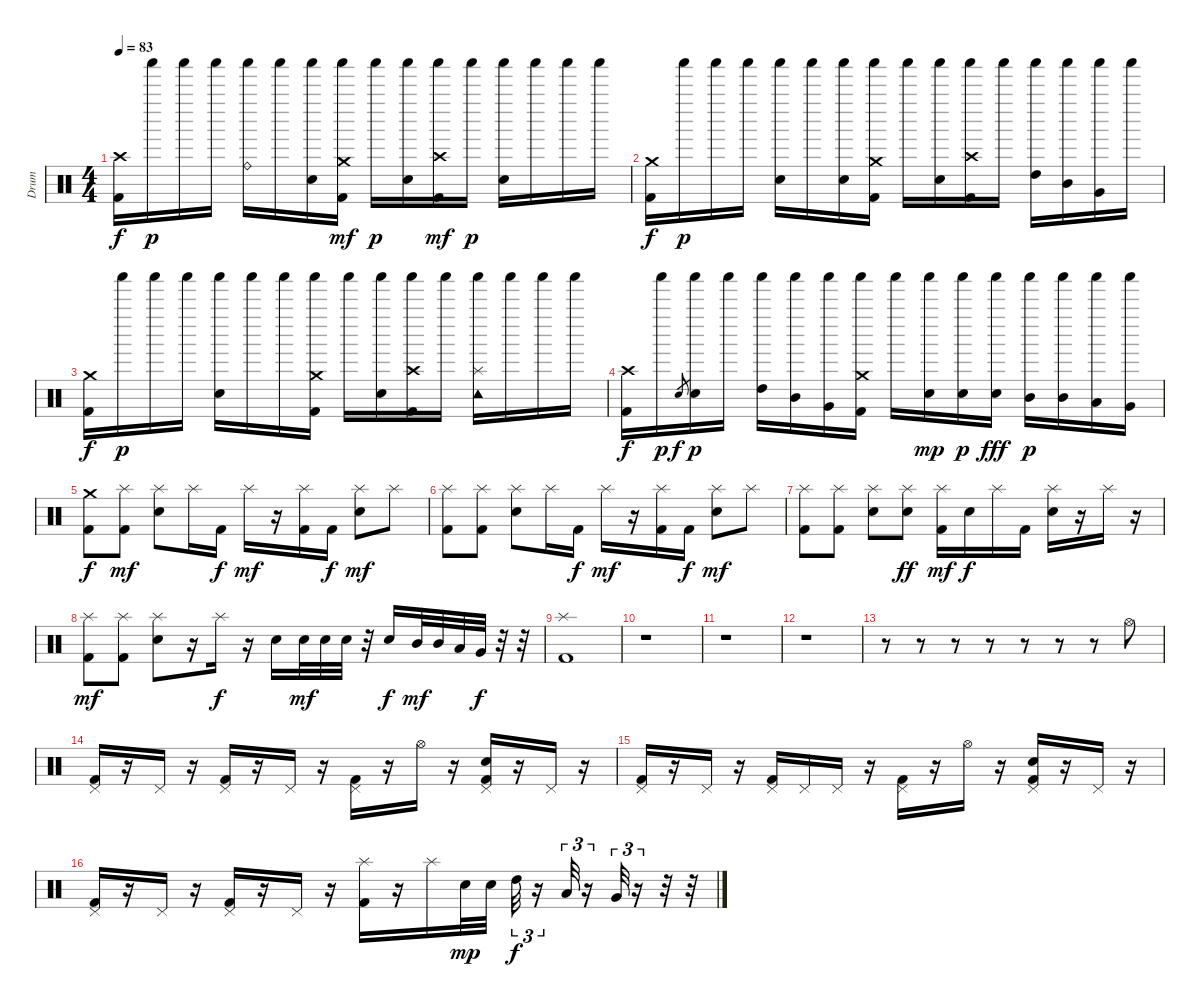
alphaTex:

\track ("Drum" "Drum") {instrument percussion}
\staff {score}
\articulation defaults
\ts (4 4)
\tempo 83
\clef neutral
\ks c
("Crash high (hit)" "Kick (hit) 2").16{dy f} "Shaker (hit)".16{dy p} "Shaker (hit)".16 "Shaker (hit)".16 ("Shaker (hit)" "Ride (bell)").16 "Shaker (hit)".16 ("Shaker (hit)" "Electric Snare (hit)").16 ("Shaker (hit)" "Crash medium (hit)" "Kick (hit) 2").16{dy mf} "Shaker (hit)".16{dy p} ("Shaker (hit)" "Electric Snare (hit)").16 ("Shaker (hit)" "Crash high (hit)" "Kick (hit) 2").16{dy mf} "Shaker (hit)".16{dy p} ("Shaker (hit)" "Electric Snare (hit)").16 "Shaker (hit)".16 "Shaker (hit)".16 "Shaker (hit)".16 |
("Crash medium (hit)" "Kick (hit) 2").16{dy f} "Shaker (hit)".16{dy p} "Shaker (hit)".16 "Shaker (hit)".16 ("Shaker (hit)" "Electric Snare (hit)").16 "Shaker (hit)".16 ("Shaker (hit)" "Electric Snare (hit)").16 ("Shaker (hit)" "Crash medium (hit)" "Kick (hit) 2").16 "Shaker (hit)".16 ("Shaker (hit)" "Electric Snare (hit)").16 ("Shaker (hit)" "Crash high (hit)" "Kick (hit) 2").16 "Shaker (hit)".16 ("Shaker (hit)" "High Tom (hit)").16 ("Shaker (hit)" "Mid Tom (hit)").16 ("Shaker (hit)" "Very Low Tom (hit)").16 "Shaker (hit)".16 |
("Crash medium (hit)" "Kick (hit) 2").16{dy f} "Shaker (hit)".16{dy p} "Shaker (hit)".16 "Shaker (hit)".16 ("Shaker (hit)" "Electric Snare (hit)").16 "Shaker (hit)".16 "Shaker (hit)".16 ("Shaker (hit)" "Crash medium (hit)" "Kick (hit) 2").16 "Shaker (hit)".16 ("Shaker (hit)" "Electric Snare (hit)").16 ("Shaker (hit)" "Crash high (hit)" "Kick (hit) 2").16 "Shaker (hit)".16 ("Shaker (hit)" "Splash (hit)" "Tambourine (hit)").16 "Shaker (hit)".16 "Shaker (hit)".16 "Shaker (hit)".16 |
("Crash high (hit)" "Kick (hit) 2").16{dy f} "Shaker (hit)".16{dy p} "Electric Snare (hit)".8{gr dy f} ("Shaker (hit)" "Electric Snare (hit)").16{dy p} "Shaker (hit)".16 ("Shaker (hit)" "High Tom (hit)").16 ("Shaker (hit)" "Mid Tom (hit)").16 ("Shaker (hit)" "Very Low Tom (hit)").16 ("Shaker (hit)" "Crash medium (hit)" "Kick (hit) 2").16 "Shaker (hit)".16 ("Shaker (hit)" "Electric Snare (hit)").16{dy mp} ("Shaker (hit)" "Electric Snare (hit)").16{dy p} ("Shaker (hit)" "Electric Snare (hit)").16{dy fff} ("Shaker (hit)" "Mid Tom (hit)").16{dy p} ("Shaker (hit)" "Mid Tom (hit)").16 ("Shaker (hit)" "Low Tom (hit)").16 ("Shaker (hit)" "Very Low Tom (hit)").16 |
("Crash medium (hit)" "Kick (hit) 2").8{dy f} ("Splash (hit)" "Kick (hit) 2").8{dy mf} ("Splash (hit)" "Electric Snare (hit)").8 "Splash (hit)".16 "Kick (hit) 2".16{dy f} "Splash (hit)".16{dy mf} r.16 ("Splash (hit)" "Kick (hit) 2").16 "Kick (hit) 2".16{dy f} ("Splash (hit)" "Electric Snare (hit)").8{dy mf} "Splash (hit)".8 |
("Splash (hit)" "Kick (hit) 2").8 ("Splash (hit)" "Kick (hit) 2").8 ("Splash (hit)" "Electric Snare (hit)").8 "Splash (hit)".16 "Kick (hit) 2".16{dy f} "Splash (hit)".16{dy mf} r.16 ("Splash (hit)" "Kick (hit) 2").16 "Kick (hit) 2".16{dy f} ("Splash (hit)" "Electric Snare (hit)").8{dy mf} "Splash (hit)".8 |
("Splash (hit)" "Kick (hit) 2").8 ("Splash (hit)" "Kick (hit) 2").8 ("Splash (hit)" "Electric Snare (hit)").8 ("Splash (hit)" "Electric Snare (hit)").8{dy ff} ("Splash (hit)" "Kick (hit) 2").16{dy mf} "Electric Snare (hit)".16{dy f} "Splash (hit)".16 "Kick (hit) 2".16 ("Splash (hit)" "Electric Snare (hit)").16 r.16 "Splash (hit)".16 r.16 |
("Splash (hit)" "Kick (hit) 2").8{dy mf} ("Splash (hit)" "Kick (hit) 2").8 ("Splash (hit)" "Electric Snare (hit)").8 r.16 "Splash (hit)".16{dy f} r.16 "Electric Snare (hit)".16 "Snare (hit) 2".32{dy mf} "Snare (hit) 2".32 "Snare (hit) 2".32 r.32 "Electric Snare (hit)".16{dy f} "Mid Tom (hit)".32{dy mf} "Mid Tom (hit)".32 "Low Tom (hit)".32 "Very Low Tom (hit)".32{dy f} r.32 r.32 |
("Splash (hit)" "Kick (hit) 2").1 |
r.1 |
r.1 |
r.1 |
r.8 r.8 r.8 r.8 r.8 r.8 r.8 "Hi-Hat (open)".8 |
("Pedal Hi-Hat (hit)" "Kick (hit) 2").16 r.16 "Pedal Hi-Hat (hit)".16 r.16 ("Pedal Hi-Hat (hit)" "Kick (hit) 2").16 r.16 "Pedal Hi-Hat (hit)".16 r.16 ("Pedal Hi-Hat (hit)" "Kick (hit) 2").16 r.16 "Hi-Hat (open)".16 r.16 ("Pedal Hi-Hat (hit)" "Electric Snare (hit)" "Kick (hit) 2").16 r.16 "Pedal Hi-Hat (hit)".16 r.16 |
("Pedal Hi-Hat (hit)" "Kick (hit) 2").16 r.16 "Pedal Hi-Hat (hit)".16 r.16 ("Pedal Hi-Hat (hit)" "Kick (hit) 2").16 "Pedal Hi-Hat (hit)".16 "Pedal Hi-Hat (hit)".16 r.16 ("Pedal Hi-Hat (hit)" "Kick (hit) 2").16 r.16 "Hi-Hat (open)".16 r.16 ("Pedal Hi-Hat (hit)" "Electric Snare (hit)" "Kick (hit) 2").16 r.16 "Pedal Hi-Hat (hit)".16 r.16 |
("Pedal Hi-Hat (hit)" "Kick (hit) 2").16 r.16 "Pedal Hi-Hat (hit)".16 r.16 ("Pedal Hi-Hat (hit)" "Kick (hit) 2").16 r.16 "Pedal Hi-Hat (hit)".16 r.16 ("Splash (hit)" "Kick (hit) 2").16 r.16 "Splash (hit)".16 "Electric Snare (hit)".32{dy mp} "Electric Snare (hit)".32 "High Tom (hit)".32{tu (3 2) dy f} r.16{tu (3 2)} "Low Tom (hit)".32{tu (3 2)} r.16{tu (3 2)} "Very Low Tom (hit)".32{tu (3 2)} r.16{tu (3 2)} r.32 r.32
